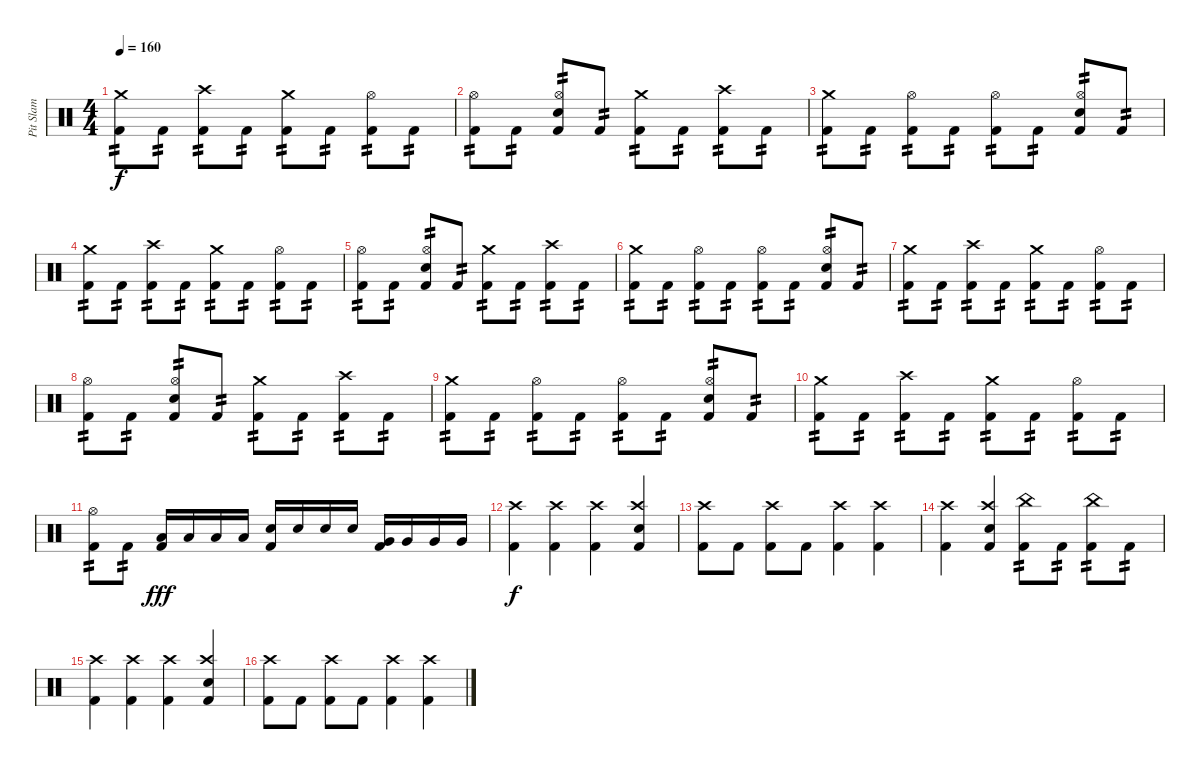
\track ("Pit Slam" "Pit Slam") {instrument percussion}
\staff {score}
\articulation defaults
\ts (4 4)
\tempo 160
\clef neutral
\ks c
("Crash medium (hit)" "Kick (hit) 2").8{tp 2 dy f} "Kick (hit) 2".8{tp 2} ("Crash high (hit)" "Kick (hit) 2").8{tp 2} "Kick (hit) 2".8{tp 2} ("Crash medium (hit)" "Kick (hit) 2").8{tp 2} "Kick (hit) 2".8{tp 2} ("Hi-Hat (open)" "Kick (hit) 2").8{tp 2} "Kick (hit) 2".8{tp 2} |
("Hi-Hat (open)" "Kick (hit) 2").8{tp 2} "Kick (hit) 2".8{tp 2} ("Hi-Hat (open)" "Electric Snare (hit)" "Kick (hit) 2").8{tp 2} "Kick (hit) 2".8{tp 2} ("Crash medium (hit)" "Kick (hit) 2").8{tp 2} "Kick (hit) 2".8{tp 2} ("Crash high (hit)" "Kick (hit) 2").8{tp 2} "Kick (hit) 2".8{tp 2} |
("Crash medium (hit)" "Kick (hit) 2").8{tp 2} "Kick (hit) 2".8{tp 2} ("Hi-Hat (open)" "Kick (hit) 2").8{tp 2} "Kick (hit) 2".8{tp 2} ("Hi-Hat (open)" "Kick (hit) 2").8{tp 2} "Kick (hit) 2".8{tp 2} ("Hi-Hat (open)" "Electric Snare (hit)" "Kick (hit) 2").8{tp 2} "Kick (hit) 2".8{tp 2} |
("Crash medium (hit)" "Kick (hit) 2").8{tp 2} "Kick (hit) 2".8{tp 2} ("Crash high (hit)" "Kick (hit) 2").8{tp 2} "Kick (hit) 2".8{tp 2} ("Crash medium (hit)" "Kick (hit) 2").8{tp 2} "Kick (hit) 2".8{tp 2} ("Hi-Hat (open)" "Kick (hit) 2").8{tp 2} "Kick (hit) 2".8{tp 2} |
("Hi-Hat (open)" "Kick (hit) 2").8{tp 2} "Kick (hit) 2".8{tp 2} ("Hi-Hat (open)" "Electric Snare (hit)" "Kick (hit) 2").8{tp 2} "Kick (hit) 2".8{tp 2} ("Crash medium (hit)" "Kick (hit) 2").8{tp 2} "Kick (hit) 2".8{tp 2} ("Crash high (hit)" "Kick (hit) 2").8{tp 2} "Kick (hit) 2".8{tp 2} |
("Crash medium (hit)" "Kick (hit) 2").8{tp 2} "Kick (hit) 2".8{tp 2} ("Hi-Hat (open)" "Kick (hit) 2").8{tp 2} "Kick (hit) 2".8{tp 2} ("Hi-Hat (open)" "Kick (hit) 2").8{tp 2} "Kick (hit) 2".8{tp 2} ("Hi-Hat (open)" "Electric Snare (hit)" "Kick (hit) 2").8{tp 2} "Kick (hit) 2".8{tp 2} |
("Crash medium (hit)" "Kick (hit) 2").8{tp 2} "Kick (hit) 2".8{tp 2} ("Crash high (hit)" "Kick (hit) 2").8{tp 2} "Kick (hit) 2".8{tp 2} ("Crash medium (hit)" "Kick (hit) 2").8{tp 2} "Kick (hit) 2".8{tp 2} ("Hi-Hat (open)" "Kick (hit) 2").8{tp 2} "Kick (hit) 2".8{tp 2} |
("Hi-Hat (open)" "Kick (hit) 2").8{tp 2} "Kick (hit) 2".8{tp 2} ("Hi-Hat (open)" "Electric Snare (hit)" "Kick (hit) 2").8{tp 2} "Kick (hit) 2".8{tp 2} ("Crash medium (hit)" "Kick (hit) 2").8{tp 2} "Kick (hit) 2".8{tp 2} ("Crash high (hit)" "Kick (hit) 2").8{tp 2} "Kick (hit) 2".8{tp 2} |
("Crash medium (hit)" "Kick (hit) 2").8{tp 2} "Kick (hit) 2".8{tp 2} ("Hi-Hat (open)" "Kick (hit) 2").8{tp 2} "Kick (hit) 2".8{tp 2} ("Hi-Hat (open)" "Kick (hit) 2").8{tp 2} "Kick (hit) 2".8{tp 2} ("Hi-Hat (open)" "Electric Snare (hit)" "Kick (hit) 2").8{tp 2} "Kick (hit) 2".8{tp 2} |
("Crash medium (hit)" "Kick (hit) 2").8{tp 2} "Kick (hit) 2".8{tp 2} ("Crash high (hit)" "Kick (hit) 2").8{tp 2} "Kick (hit) 2".8{tp 2} ("Crash medium (hit)" "Kick (hit) 2").8{tp 2} "Kick (hit) 2".8{tp 2} ("Hi-Hat (open)" "Kick (hit) 2").8{tp 2} "Kick (hit) 2".8{tp 2} |
("Hi-Hat (open)" "Kick (hit) 2").8{tp 2} "Kick (hit) 2".8{tp 2} ("Low Tom (hit)" "Kick (hit) 2").16{dy fff} "Low Tom (hit)".16 "Low Tom (hit)".16 "Low Tom (hit)".16 ("Electric Snare (hit)" "Kick (hit) 2").16 "Electric Snare (hit)".16 "Electric Snare (hit)".16 "Electric Snare (hit)".16 ("Very Low Tom (hit)" "Kick (hit) 2").16 "Very Low Tom (hit)".16 "Very Low Tom (hit)".16 "Very Low Tom (hit)".16 |
("Crash high (hit)" "Kick (hit) 2").4{dy f} ("Crash high (hit)" "Kick (hit) 2").4 ("Crash high (hit)" "Kick (hit) 2").4 ("Crash high (hit)" "Electric Snare (hit)" "Kick (hit) 2").4 |
("Crash high (hit)" "Kick (hit) 2").8 "Kick (hit) 2".8 ("Crash high (hit)" "Kick (hit) 2").8 "Kick (hit) 2".8 ("Crash high (hit)" "Kick (hit) 2").4 ("Crash high (hit)" "Kick (hit) 2").4 |
("Crash high (hit)" "Kick (hit) 2").4 ("Crash high (hit)" "Electric Snare (hit)" "Kick (hit) 2").4 ("China (hit)" "Kick (hit) 2").8{tp 2} "Kick (hit) 2".8{tp 2} ("China (hit)" "Kick (hit) 2").8{tp 2} "Kick (hit) 2".8{tp 2} |
("Crash high (hit)" "Kick (hit) 2").4 ("Crash high (hit)" "Kick (hit) 2").4 ("Crash high (hit)" "Kick (hit) 2").4 ("Crash high (hit)" "Electric Snare (hit)" "Kick (hit) 2").4 |
("Crash high (hit)" "Kick (hit) 2").8 "Kick (hit) 2".8 ("Crash high (hit)" "Kick (hit) 2").8 "Kick (hit) 2".8 ("Crash high (hit)" "Kick (hit) 2").4 ("Crash high (hit)" "Kick (hit) 2").4
